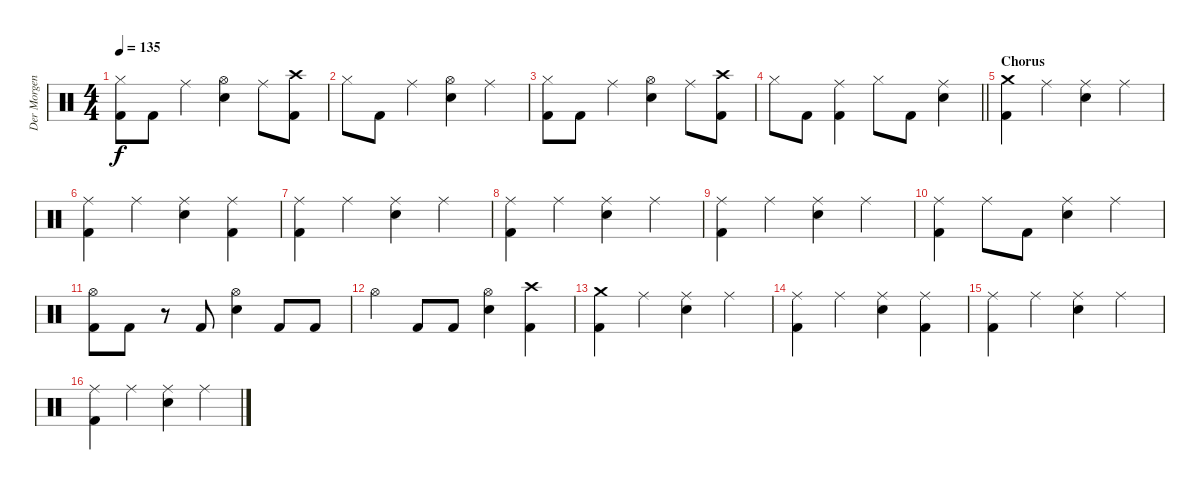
\track ("Der Morgenstern" "Der Morgen") {instrument percussion}
\staff {score}
\articulation defaults
\ts (4 4)
\tempo 135
\clef neutral
\ks c
("Hi-Hat (closed)" "Kick (hit) 2").8{dy f} "Kick (hit) 2".8 "Ride (middle)".4 ("Hi-Hat (open)" "Electric Snare (hit)").4 "Ride (middle)".8 ("Crash high (hit)" "Kick (hit) 2").8 |
"Hi-Hat (closed)".8 "Kick (hit) 2".8 "Ride (middle)".4 ("Hi-Hat (open)" "Electric Snare (hit)").4 "Ride (middle)".4 |
("Hi-Hat (closed)" "Kick (hit) 2").8 "Kick (hit) 2".8 "Ride (middle)".4 ("Hi-Hat (open)" "Electric Snare (hit)").4 "Ride (middle)".8 ("Crash high (hit)" "Kick (hit) 2").8 |
\barLineRight lightlight "Hi-Hat (closed)".8 "Kick (hit) 2".8
("Ride (middle)" "Kick (hit) 2").4 "Hi-Hat (closed)".8 "Kick (hit) 2".8 ("Ride (middle)" "Electric Snare (hit)").4 |
\section ("" "Chorus")
("Crash medium (hit)" "Kick (hit) 2").4 "Ride (middle)".4 ("Ride (middle)" "Electric Snare (hit)").4 "Ride (middle)".4 |
("Ride (middle)" "Kick (hit) 2").4 "Ride (middle)".4 ("Ride (middle)" "Electric Snare (hit)").4 ("Ride (middle)" "Kick (hit) 2").4 |
("Ride (middle)" "Kick (hit) 2").4 "Ride (middle)".4 ("Ride (middle)" "Electric Snare (hit)").4 "Ride (middle)".4 |
("Ride (middle)" "Kick (hit) 2").4 "Ride (middle)".4 ("Ride (middle)" "Electric Snare (hit)").4 "Ride (middle)".4 |
("Ride (middle)" "Kick (hit) 2").4 "Ride (middle)".4 ("Ride (middle)" "Electric Snare (hit)").4 "Ride (middle)".4 |
("Ride (middle)" "Kick (hit) 2").4 "Ride (middle)".8 "Kick (hit) 2".8 ("Ride (middle)" "Electric Snare (hit)").4 "Ride (middle)".4 |
("Hi-Hat (open)" "Kick (hit) 2").8 "Kick (hit) 2".8 r.8 "Kick (hit) 2".8 ("Hi-Hat (open)" "Electric Snare (hit)").4 "Kick (hit) 2".8 "Kick (hit) 2".8 |
"Hi-Hat (open)".4 "Kick (hit) 2".8 "Kick (hit) 2".8 ("Hi-Hat (open)" "Electric Snare (hit)").4 ("Crash high (hit)" "Kick (hit) 2").4 |
("Crash medium (hit)" "Kick (hit) 2").4 "Ride (middle)".4 ("Ride (middle)" "Electric Snare (hit)").4 "Ride (middle)".4 |
("Ride (middle)" "Kick (hit) 2").4 "Ride (middle)".4 ("Ride (middle)" "Electric Snare (hit)").4 ("Ride (middle)" "Kick (hit) 2").4 |
("Ride (middle)" "Kick (hit) 2").4 "Ride (middle)".4 ("Ride (middle)" "Electric Snare (hit)").4 "Ride (middle)".4 |
("Ride (middle)" "Kick (hit) 2").4 "Ride (middle)".4 ("Ride (middle)" "Electric Snare (hit)").4 "Ride (middle)".4
